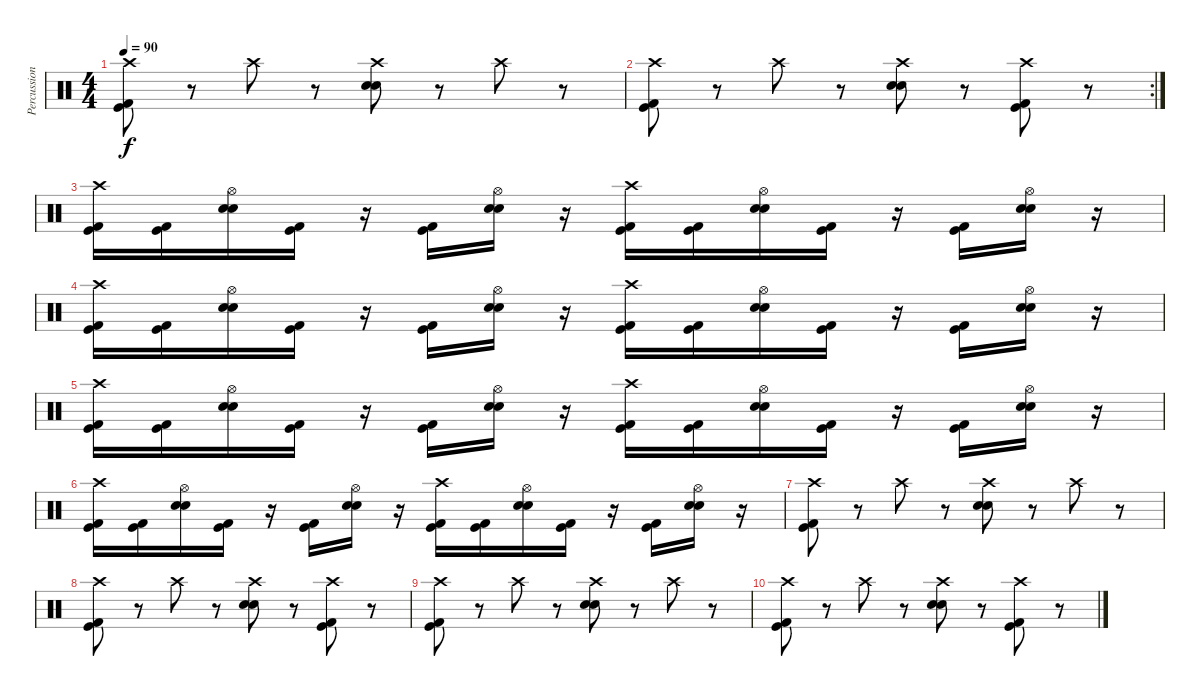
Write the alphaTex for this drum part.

\track ("Percussion" "Percussion") {instrument percussion}
\staff {score}
\articulation defaults
\ts (4 4)
\tempo 90
\clef neutral
\ks c
("Kick (hit)" "Kick (hit) 2" "Crash high (hit)").8{dy f} r.8 "Crash high (hit)".8 r.8 ("Snare (hit) 2" "Electric Snare (hit)" "Crash high (hit)").8 r.8 "Crash high (hit)".8 r.8 |
\rc 2
("Kick (hit)" "Kick (hit) 2" "Crash high (hit)").8 r.8 "Crash high (hit)".8 r.8 ("Snare (hit) 2" "Electric Snare (hit)" "Crash high (hit)").8 r.8 ("Kick (hit) 2" "Kick (hit)" "Crash high (hit)").8 r.8 |
("Kick (hit) 2" "Kick (hit)" "Crash high (hit)").16 ("Kick (hit) 2" "Kick (hit)").16 ("Electric Snare (hit)" "Snare (hit) 2" "Hi-Hat (open)").16 ("Kick (hit) 2" "Kick (hit)").16 r.16 ("Kick (hit) 2" "Kick (hit)").16 ("Electric Snare (hit)" "Snare (hit) 2" "Hi-Hat (open)").16 r.16 ("Kick (hit) 2" "Kick (hit)" "Crash high (hit)").16 ("Kick (hit) 2" "Kick (hit)").16 ("Electric Snare (hit)" "Snare (hit) 2" "Hi-Hat (open)").16 ("Kick (hit) 2" "Kick (hit)").16 r.16 ("Kick (hit) 2" "Kick (hit)").16 ("Electric Snare (hit)" "Snare (hit) 2" "Hi-Hat (open)").16 r.16 |
("Kick (hit) 2" "Kick (hit)" "Crash high (hit)").16 ("Kick (hit) 2" "Kick (hit)").16 ("Electric Snare (hit)" "Snare (hit) 2" "Hi-Hat (open)").16 ("Kick (hit) 2" "Kick (hit)").16 r.16 ("Kick (hit) 2" "Kick (hit)").16 ("Electric Snare (hit)" "Snare (hit) 2" "Hi-Hat (open)").16 r.16 ("Kick (hit) 2" "Kick (hit)" "Crash high (hit)").16 ("Kick (hit) 2" "Kick (hit)").16 ("Electric Snare (hit)" "Snare (hit) 2" "Hi-Hat (open)").16 ("Kick (hit) 2" "Kick (hit)").16 r.16 ("Kick (hit) 2" "Kick (hit)").16 ("Electric Snare (hit)" "Snare (hit) 2" "Hi-Hat (open)").16 r.16 |
("Kick (hit) 2" "Kick (hit)" "Crash high (hit)").16 ("Kick (hit) 2" "Kick (hit)").16 ("Electric Snare (hit)" "Snare (hit) 2" "Hi-Hat (open)").16 ("Kick (hit) 2" "Kick (hit)").16 r.16 ("Kick (hit) 2" "Kick (hit)").16 ("Electric Snare (hit)" "Snare (hit) 2" "Hi-Hat (open)").16 r.16 ("Kick (hit) 2" "Kick (hit)" "Crash high (hit)").16 ("Kick (hit) 2" "Kick (hit)").16 ("Electric Snare (hit)" "Snare (hit) 2" "Hi-Hat (open)").16 ("Kick (hit) 2" "Kick (hit)").16 r.16 ("Kick (hit) 2" "Kick (hit)").16 ("Electric Snare (hit)" "Snare (hit) 2" "Hi-Hat (open)").16 r.16 |
("Kick (hit) 2" "Kick (hit)" "Crash high (hit)").16 ("Kick (hit) 2" "Kick (hit)").16 ("Electric Snare (hit)" "Snare (hit) 2" "Hi-Hat (open)").16 ("Kick (hit) 2" "Kick (hit)").16 r.16 ("Kick (hit) 2" "Kick (hit)").16 ("Electric Snare (hit)" "Snare (hit) 2" "Hi-Hat (open)").16 r.16 ("Kick (hit) 2" "Kick (hit)" "Crash high (hit)").16 ("Kick (hit) 2" "Kick (hit)").16 ("Electric Snare (hit)" "Snare (hit) 2" "Hi-Hat (open)").16 ("Kick (hit) 2" "Kick (hit)").16 r.16 ("Kick (hit) 2" "Kick (hit)").16 ("Electric Snare (hit)" "Snare (hit) 2" "Hi-Hat (open)").16 r.16 |
("Kick (hit)" "Kick (hit) 2" "Crash high (hit)").8 r.8 "Crash high (hit)".8 r.8 ("Snare (hit) 2" "Electric Snare (hit)" "Crash high (hit)").8 r.8 "Crash high (hit)".8 r.8 |
("Kick (hit)" "Kick (hit) 2" "Crash high (hit)").8 r.8 "Crash high (hit)".8 r.8 ("Snare (hit) 2" "Electric Snare (hit)" "Crash high (hit)").8 r.8 ("Kick (hit) 2" "Kick (hit)" "Crash high (hit)").8 r.8 |
("Kick (hit)" "Kick (hit) 2" "Crash high (hit)").8 r.8 "Crash high (hit)".8 r.8 ("Snare (hit) 2" "Electric Snare (hit)" "Crash high (hit)").8 r.8 "Crash high (hit)".8 r.8 |
("Kick (hit)" "Kick (hit) 2" "Crash high (hit)").8 r.8 "Crash high (hit)".8 r.8 ("Snare (hit) 2" "Electric Snare (hit)" "Crash high (hit)").8 r.8 ("Kick (hit) 2" "Kick (hit)" "Crash high (hit)").8 r.8
